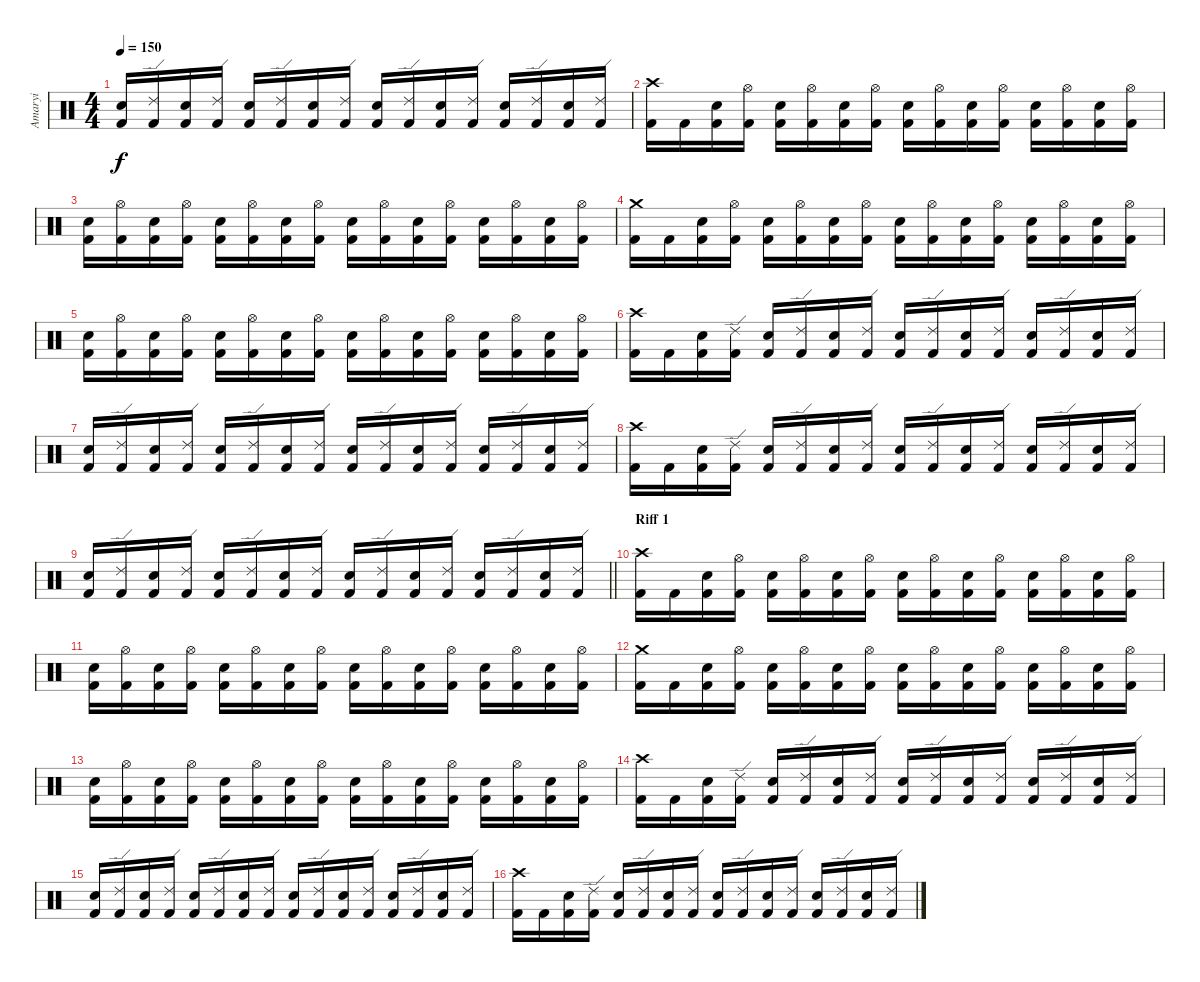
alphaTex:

\track ("Amaryi" "Amaryi") {instrument percussion}
\staff {score}
\articulation defaults
\ts (4 4)
\tempo 150
\clef neutral
\ks c
("Electric Snare (hit)" "Kick (hit) 2").16{dy f} ("Ride (edge) 2" "Kick (hit) 2").16 ("Electric Snare (hit)" "Kick (hit) 2").16 ("Ride (edge) 2" "Kick (hit) 2").16 ("Electric Snare (hit)" "Kick (hit) 2").16 ("Ride (edge) 2" "Kick (hit) 2").16 ("Electric Snare (hit)" "Kick (hit) 2").16 ("Ride (edge) 2" "Kick (hit) 2").16 ("Electric Snare (hit)" "Kick (hit) 2").16 ("Ride (edge) 2" "Kick (hit) 2").16 ("Electric Snare (hit)" "Kick (hit) 2").16 ("Ride (edge) 2" "Kick (hit) 2").16 ("Electric Snare (hit)" "Kick (hit) 2").16 ("Ride (edge) 2" "Kick (hit) 2").16 ("Electric Snare (hit)" "Kick (hit) 2").16 ("Ride (edge) 2" "Kick (hit) 2").16 |
("Crash high (hit)" "Kick (hit) 2").16 "Kick (hit) 2".16 ("Electric Snare (hit)" "Kick (hit) 2").16 ("Hi-Hat (open)" "Kick (hit) 2").16 ("Electric Snare (hit)" "Kick (hit) 2").16 ("Hi-Hat (open)" "Kick (hit) 2").16 ("Electric Snare (hit)" "Kick (hit) 2").16 ("Hi-Hat (open)" "Kick (hit) 2").16 ("Electric Snare (hit)" "Kick (hit) 2").16 ("Hi-Hat (open)" "Kick (hit) 2").16 ("Electric Snare (hit)" "Kick (hit) 2").16 ("Hi-Hat (open)" "Kick (hit) 2").16 ("Electric Snare (hit)" "Kick (hit) 2").16 ("Hi-Hat (open)" "Kick (hit) 2").16 ("Electric Snare (hit)" "Kick (hit) 2").16 ("Hi-Hat (open)" "Kick (hit) 2").16 |
("Electric Snare (hit)" "Kick (hit) 2").16 ("Hi-Hat (open)" "Kick (hit) 2").16 ("Electric Snare (hit)" "Kick (hit) 2").16 ("Hi-Hat (open)" "Kick (hit) 2").16 ("Electric Snare (hit)" "Kick (hit) 2").16 ("Hi-Hat (open)" "Kick (hit) 2").16 ("Electric Snare (hit)" "Kick (hit) 2").16 ("Hi-Hat (open)" "Kick (hit) 2").16 ("Electric Snare (hit)" "Kick (hit) 2").16 ("Hi-Hat (open)" "Kick (hit) 2").16 ("Electric Snare (hit)" "Kick (hit) 2").16 ("Hi-Hat (open)" "Kick (hit) 2").16 ("Electric Snare (hit)" "Kick (hit) 2").16 ("Hi-Hat (open)" "Kick (hit) 2").16 ("Electric Snare (hit)" "Kick (hit) 2").16 ("Hi-Hat (open)" "Kick (hit) 2").16 |
("Crash medium (hit)" "Kick (hit) 2").16 "Kick (hit) 2".16 ("Electric Snare (hit)" "Kick (hit) 2").16 ("Hi-Hat (open)" "Kick (hit) 2").16 ("Electric Snare (hit)" "Kick (hit) 2").16 ("Hi-Hat (open)" "Kick (hit) 2").16 ("Electric Snare (hit)" "Kick (hit) 2").16 ("Hi-Hat (open)" "Kick (hit) 2").16 ("Electric Snare (hit)" "Kick (hit) 2").16 ("Hi-Hat (open)" "Kick (hit) 2").16 ("Electric Snare (hit)" "Kick (hit) 2").16 ("Hi-Hat (open)" "Kick (hit) 2").16 ("Electric Snare (hit)" "Kick (hit) 2").16 ("Hi-Hat (open)" "Kick (hit) 2").16 ("Electric Snare (hit)" "Kick (hit) 2").16 ("Hi-Hat (open)" "Kick (hit) 2").16 |
("Electric Snare (hit)" "Kick (hit) 2").16 ("Hi-Hat (open)" "Kick (hit) 2").16 ("Electric Snare (hit)" "Kick (hit) 2").16 ("Hi-Hat (open)" "Kick (hit) 2").16 ("Electric Snare (hit)" "Kick (hit) 2").16 ("Hi-Hat (open)" "Kick (hit) 2").16 ("Electric Snare (hit)" "Kick (hit) 2").16 ("Hi-Hat (open)" "Kick (hit) 2").16 ("Electric Snare (hit)" "Kick (hit) 2").16 ("Hi-Hat (open)" "Kick (hit) 2").16 ("Electric Snare (hit)" "Kick (hit) 2").16 ("Hi-Hat (open)" "Kick (hit) 2").16 ("Electric Snare (hit)" "Kick (hit) 2").16 ("Hi-Hat (open)" "Kick (hit) 2").16 ("Electric Snare (hit)" "Kick (hit) 2").16 ("Hi-Hat (open)" "Kick (hit) 2").16 |
("Crash high (hit)" "Kick (hit) 2").16 "Kick (hit) 2".16 ("Electric Snare (hit)" "Kick (hit) 2").16 ("Ride (edge) 2" "Kick (hit) 2").16 ("Electric Snare (hit)" "Kick (hit) 2").16 ("Ride (edge) 2" "Kick (hit) 2").16 ("Electric Snare (hit)" "Kick (hit) 2").16 ("Ride (edge) 2" "Kick (hit) 2").16 ("Electric Snare (hit)" "Kick (hit) 2").16 ("Ride (edge) 2" "Kick (hit) 2").16 ("Electric Snare (hit)" "Kick (hit) 2").16 ("Ride (edge) 2" "Kick (hit) 2").16 ("Electric Snare (hit)" "Kick (hit) 2").16 ("Ride (edge) 2" "Kick (hit) 2").16 ("Electric Snare (hit)" "Kick (hit) 2").16 ("Ride (edge) 2" "Kick (hit) 2").16 |
("Electric Snare (hit)" "Kick (hit) 2").16 ("Ride (edge) 2" "Kick (hit) 2").16 ("Electric Snare (hit)" "Kick (hit) 2").16 ("Ride (edge) 2" "Kick (hit) 2").16 ("Electric Snare (hit)" "Kick (hit) 2").16 ("Ride (edge) 2" "Kick (hit) 2").16 ("Electric Snare (hit)" "Kick (hit) 2").16 ("Ride (edge) 2" "Kick (hit) 2").16 ("Electric Snare (hit)" "Kick (hit) 2").16 ("Ride (edge) 2" "Kick (hit) 2").16 ("Electric Snare (hit)" "Kick (hit) 2").16 ("Ride (edge) 2" "Kick (hit) 2").16 ("Electric Snare (hit)" "Kick (hit) 2").16 ("Ride (edge) 2" "Kick (hit) 2").16 ("Electric Snare (hit)" "Kick (hit) 2").16 ("Ride (edge) 2" "Kick (hit) 2").16 |
("Crash high (hit)" "Kick (hit) 2").16 "Kick (hit) 2".16 ("Electric Snare (hit)" "Kick (hit) 2").16 ("Ride (edge) 2" "Kick (hit) 2").16 ("Electric Snare (hit)" "Kick (hit) 2").16 ("Ride (edge) 2" "Kick (hit) 2").16 ("Electric Snare (hit)" "Kick (hit) 2").16 ("Ride (edge) 2" "Kick (hit) 2").16 ("Electric Snare (hit)" "Kick (hit) 2").16 ("Ride (edge) 2" "Kick (hit) 2").16 ("Electric Snare (hit)" "Kick (hit) 2").16 ("Ride (edge) 2" "Kick (hit) 2").16 ("Electric Snare (hit)" "Kick (hit) 2").16 ("Ride (edge) 2" "Kick (hit) 2").16 ("Electric Snare (hit)" "Kick (hit) 2").16 ("Ride (edge) 2" "Kick (hit) 2").16 |
\barLineRight lightlight
("Electric Snare (hit)" "Kick (hit) 2").16 ("Ride (edge) 2" "Kick (hit) 2").16 ("Electric Snare (hit)" "Kick (hit) 2").16 ("Ride (edge) 2" "Kick (hit) 2").16 ("Electric Snare (hit)" "Kick (hit) 2").16 ("Ride (edge) 2" "Kick (hit) 2").16 ("Electric Snare (hit)" "Kick (hit) 2").16 ("Ride (edge) 2" "Kick (hit) 2").16 ("Electric Snare (hit)" "Kick (hit) 2").16 ("Ride (edge) 2" "Kick (hit) 2").16 ("Electric Snare (hit)" "Kick (hit) 2").16 ("Ride (edge) 2" "Kick (hit) 2").16 ("Electric Snare (hit)" "Kick (hit) 2").16 ("Ride (edge) 2" "Kick (hit) 2").16 ("Electric Snare (hit)" "Kick (hit) 2").16 ("Ride (edge) 2" "Kick (hit) 2").16 |
\section ("" "Riff 1")
("Crash high (hit)" "Kick (hit) 2").16 "Kick (hit) 2".16 ("Electric Snare (hit)" "Kick (hit) 2").16 ("Hi-Hat (open)" "Kick (hit) 2").16 ("Electric Snare (hit)" "Kick (hit) 2").16 ("Hi-Hat (open)" "Kick (hit) 2").16 ("Electric Snare (hit)" "Kick (hit) 2").16 ("Hi-Hat (open)" "Kick (hit) 2").16 ("Electric Snare (hit)" "Kick (hit) 2").16 ("Hi-Hat (open)" "Kick (hit) 2").16 ("Electric Snare (hit)" "Kick (hit) 2").16 ("Hi-Hat (open)" "Kick (hit) 2").16 ("Electric Snare (hit)" "Kick (hit) 2").16 ("Hi-Hat (open)" "Kick (hit) 2").16 ("Electric Snare (hit)" "Kick (hit) 2").16 ("Hi-Hat (open)" "Kick (hit) 2").16 |
("Electric Snare (hit)" "Kick (hit) 2").16 ("Hi-Hat (open)" "Kick (hit) 2").16 ("Electric Snare (hit)" "Kick (hit) 2").16 ("Hi-Hat (open)" "Kick (hit) 2").16 ("Electric Snare (hit)" "Kick (hit) 2").16 ("Hi-Hat (open)" "Kick (hit) 2").16 ("Electric Snare (hit)" "Kick (hit) 2").16 ("Hi-Hat (open)" "Kick (hit) 2").16 ("Electric Snare (hit)" "Kick (hit) 2").16 ("Hi-Hat (open)" "Kick (hit) 2").16 ("Electric Snare (hit)" "Kick (hit) 2").16 ("Hi-Hat (open)" "Kick (hit) 2").16 ("Electric Snare (hit)" "Kick (hit) 2").16 ("Hi-Hat (open)" "Kick (hit) 2").16 ("Electric Snare (hit)" "Kick (hit) 2").16 ("Hi-Hat (open)" "Kick (hit) 2").16 |
("Crash medium (hit)" "Kick (hit) 2").16 "Kick (hit) 2".16 ("Electric Snare (hit)" "Kick (hit) 2").16 ("Hi-Hat (open)" "Kick (hit) 2").16 ("Electric Snare (hit)" "Kick (hit) 2").16 ("Hi-Hat (open)" "Kick (hit) 2").16 ("Electric Snare (hit)" "Kick (hit) 2").16 ("Hi-Hat (open)" "Kick (hit) 2").16 ("Electric Snare (hit)" "Kick (hit) 2").16 ("Hi-Hat (open)" "Kick (hit) 2").16 ("Electric Snare (hit)" "Kick (hit) 2").16 ("Hi-Hat (open)" "Kick (hit) 2").16 ("Electric Snare (hit)" "Kick (hit) 2").16 ("Hi-Hat (open)" "Kick (hit) 2").16 ("Electric Snare (hit)" "Kick (hit) 2").16 ("Hi-Hat (open)" "Kick (hit) 2").16 |
("Electric Snare (hit)" "Kick (hit) 2").16 ("Hi-Hat (open)" "Kick (hit) 2").16 ("Electric Snare (hit)" "Kick (hit) 2").16 ("Hi-Hat (open)" "Kick (hit) 2").16 ("Electric Snare (hit)" "Kick (hit) 2").16 ("Hi-Hat (open)" "Kick (hit) 2").16 ("Electric Snare (hit)" "Kick (hit) 2").16 ("Hi-Hat (open)" "Kick (hit) 2").16 ("Electric Snare (hit)" "Kick (hit) 2").16 ("Hi-Hat (open)" "Kick (hit) 2").16 ("Electric Snare (hit)" "Kick (hit) 2").16 ("Hi-Hat (open)" "Kick (hit) 2").16 ("Electric Snare (hit)" "Kick (hit) 2").16 ("Hi-Hat (open)" "Kick (hit) 2").16 ("Electric Snare (hit)" "Kick (hit) 2").16 ("Hi-Hat (open)" "Kick (hit) 2").16 |
("Crash high (hit)" "Kick (hit) 2").16 "Kick (hit) 2".16 ("Electric Snare (hit)" "Kick (hit) 2").16 ("Ride (edge) 2" "Kick (hit) 2").16 ("Electric Snare (hit)" "Kick (hit) 2").16 ("Ride (edge) 2" "Kick (hit) 2").16 ("Electric Snare (hit)" "Kick (hit) 2").16 ("Ride (edge) 2" "Kick (hit) 2").16 ("Electric Snare (hit)" "Kick (hit) 2").16 ("Ride (edge) 2" "Kick (hit) 2").16 ("Electric Snare (hit)" "Kick (hit) 2").16 ("Ride (edge) 2" "Kick (hit) 2").16 ("Electric Snare (hit)" "Kick (hit) 2").16 ("Ride (edge) 2" "Kick (hit) 2").16 ("Electric Snare (hit)" "Kick (hit) 2").16 ("Ride (edge) 2" "Kick (hit) 2").16 |
("Electric Snare (hit)" "Kick (hit) 2").16 ("Ride (edge) 2" "Kick (hit) 2").16 ("Electric Snare (hit)" "Kick (hit) 2").16 ("Ride (edge) 2" "Kick (hit) 2").16 ("Electric Snare (hit)" "Kick (hit) 2").16 ("Ride (edge) 2" "Kick (hit) 2").16 ("Electric Snare (hit)" "Kick (hit) 2").16 ("Ride (edge) 2" "Kick (hit) 2").16 ("Electric Snare (hit)" "Kick (hit) 2").16 ("Ride (edge) 2" "Kick (hit) 2").16 ("Electric Snare (hit)" "Kick (hit) 2").16 ("Ride (edge) 2" "Kick (hit) 2").16 ("Electric Snare (hit)" "Kick (hit) 2").16 ("Ride (edge) 2" "Kick (hit) 2").16 ("Electric Snare (hit)" "Kick (hit) 2").16 ("Ride (edge) 2" "Kick (hit) 2").16 |
("Crash high (hit)" "Kick (hit) 2").16 "Kick (hit) 2".16 ("Electric Snare (hit)" "Kick (hit) 2").16 ("Ride (edge) 2" "Kick (hit) 2").16 ("Electric Snare (hit)" "Kick (hit) 2").16 ("Ride (edge) 2" "Kick (hit) 2").16 ("Electric Snare (hit)" "Kick (hit) 2").16 ("Ride (edge) 2" "Kick (hit) 2").16 ("Electric Snare (hit)" "Kick (hit) 2").16 ("Ride (edge) 2" "Kick (hit) 2").16 ("Electric Snare (hit)" "Kick (hit) 2").16 ("Ride (edge) 2" "Kick (hit) 2").16 ("Electric Snare (hit)" "Kick (hit) 2").16 ("Ride (edge) 2" "Kick (hit) 2").16 ("Electric Snare (hit)" "Kick (hit) 2").16 ("Ride (edge) 2" "Kick (hit) 2").16
